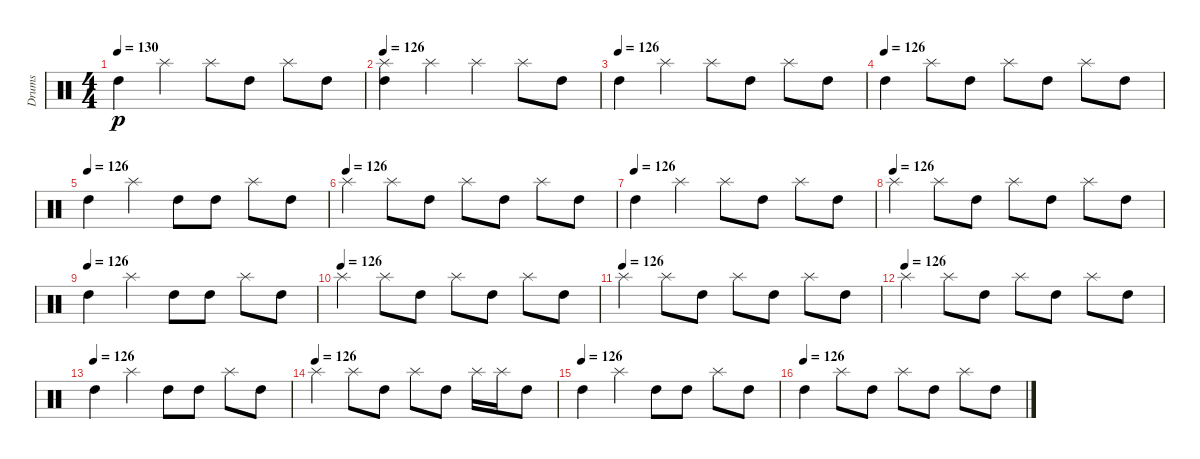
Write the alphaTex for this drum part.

\track ("Drums" "Drums") {instrument percussion}
\staff {score}
\articulation defaults
\ts (4 4)
\tempo 130
\tempo 126
\tempo 130
\clef neutral
\ks c "High Tom (hit)".4{dy p} "Splash (hit)".4 "Splash (hit)".8 "High Tom (hit)".8 "Splash (hit)".8 "High Tom (hit)".8
|
\tempo 126
("Splash (hit)" "High Tom (hit)").4 "Splash (hit)".4 "Splash (hit)".4 "Splash (hit)".8 "High Tom (hit)".8 |
\tempo (126)
"High Tom (hit)".4 "Splash (hit)".4 "Splash (hit)".8 "High Tom (hit)".8 "Splash (hit)".8 "High Tom (hit)".8 |
\tempo (126)
"High Tom (hit)".4 "Splash (hit)".8 "High Tom (hit)".8 "Splash (hit)".8 "High Tom (hit)".8 "Splash (hit)".8 "High Tom (hit)".8 |
\tempo (126)
"High Tom (hit)".4 "Splash (hit)".4 "High Tom (hit)".8 "High Tom (hit)".8 "Splash (hit)".8 "High Tom (hit)".8 |
\tempo (126)
"Splash (hit)".4 "Splash (hit)".8 "High Tom (hit)".8 "Splash (hit)".8 "High Tom (hit)".8 "Splash (hit)".8 "High Tom (hit)".8 |
\tempo (126)
"High Tom (hit)".4 "Splash (hit)".4 "Splash (hit)".8 "High Tom (hit)".8 "Splash (hit)".8 "High Tom (hit)".8 |
\tempo (126)
"Splash (hit)".4 "Splash (hit)".8 "High Tom (hit)".8 "Splash (hit)".8 "High Tom (hit)".8 "Splash (hit)".8 "High Tom (hit)".8 |
\tempo (126)
"High Tom (hit)".4 "Splash (hit)".4 "High Tom (hit)".8 "High Tom (hit)".8 "Splash (hit)".8 "High Tom (hit)".8 |
\tempo (126)
"Splash (hit)".4 "Splash (hit)".8 "High Tom (hit)".8 "Splash (hit)".8 "High Tom (hit)".8 "Splash (hit)".8 "High Tom (hit)".8 |
\tempo (126)
"Splash (hit)".4 "Splash (hit)".8 "High Tom (hit)".8 "Splash (hit)".8 "High Tom (hit)".8 "Splash (hit)".8 "High Tom (hit)".8 |
\tempo (126)
"Splash (hit)".4 "Splash (hit)".8 "High Tom (hit)".8 "Splash (hit)".8 "High Tom (hit)".8 "Splash (hit)".8 "High Tom (hit)".8 |
\tempo (126)
"High Tom (hit)".4 "Splash (hit)".4 "High Tom (hit)".8 "High Tom (hit)".8 "Splash (hit)".8 "High Tom (hit)".8 |
\tempo (126)
"Splash (hit)".4 "Splash (hit)".8 "High Tom (hit)".8 "Splash (hit)".8 "High Tom (hit)".8 "Splash (hit)".16 "Splash (hit)".16 "High Tom (hit)".8 |
\tempo (126)
"High Tom (hit)".4 "Splash (hit)".4 "High Tom (hit)".8 "High Tom (hit)".8 "Splash (hit)".8 "High Tom (hit)".8 |
\tempo (126)
"High Tom (hit)".4 "Splash (hit)".8 "High Tom (hit)".8 "Splash (hit)".8 "High Tom (hit)".8 "Splash (hit)".8 "High Tom (hit)".8
